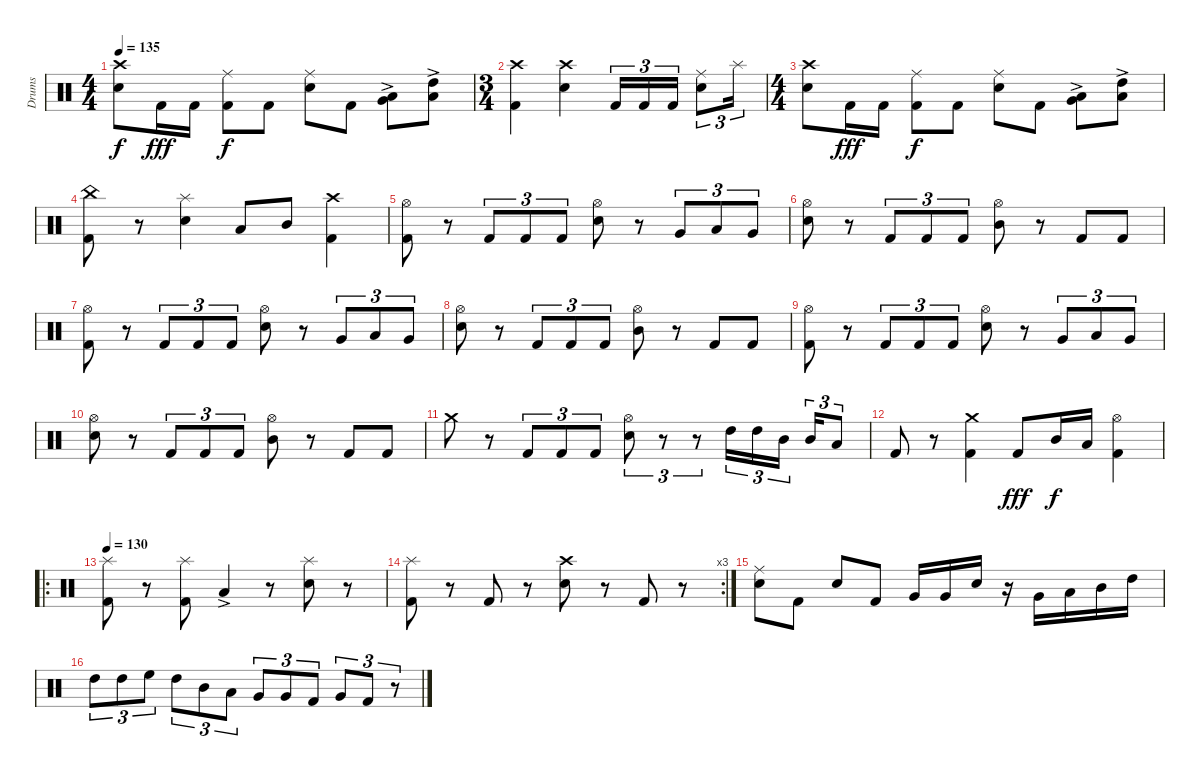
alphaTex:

\track ("Drums" "Drums") {instrument percussion}
\staff {score}
\articulation defaults
\ts (4 4)
\tempo 135
\clef neutral
\ks c
("Crash high (hit)" "Electric Snare (hit)").8{dy f} "Kick (hit) 2".16{dy fff} "Kick (hit) 2".16 ("Ride (middle)" "Kick (hit) 2").8{dy f} "Kick (hit) 2".8 ("Ride (middle)" "Electric Snare (hit)").8 "Kick (hit) 2".8 ("Low Tom (hit)"{ac} "Very Low Tom (hit)"{ac}).8 ("High Tom (hit)"{ac} "Low Floor Tom (hit)"{ac}).8 |
\ts (3 4)
("Crash high (hit)" "Kick (hit) 2").4 ("Crash high (hit)" "Electric Snare (hit)").4 "Kick (hit) 2".16{tu (3 2)} "Kick (hit) 2".16{tu (3 2)} "Kick (hit) 2".16{tu (3 2)} ("Ride (middle)" "Electric Snare (hit)").8{tu (3 2)} "Splash (hit)".16{tu (3 2)} |
\ts (4 4)
("Crash high (hit)" "Electric Snare (hit)").8 "Kick (hit) 2".16{dy fff} "Kick (hit) 2".16 ("Ride (middle)" "Kick (hit) 2").8{dy f} "Kick (hit) 2".8 ("Ride (middle)" "Electric Snare (hit)").8 "Kick (hit) 2".8 ("Low Tom (hit)"{ac} "Very Low Tom (hit)"{ac}).8 ("High Tom (hit)"{ac} "Low Floor Tom (hit)"{ac}).8 |
("China (hit)" "Kick (hit) 2").8 r.8 ("Splash (hit)" "Electric Snare (hit)").4 "Low Tom (hit)".8 "Mid Tom (hit)".8 ("Crash high (hit)" "Kick (hit) 2").4 |
("Hi-Hat (open)" "Kick (hit) 2").8 r.8 "Kick (hit) 2".8{tu (3 2)} "Kick (hit) 2".8{tu (3 2)} "Kick (hit) 2".8{tu (3 2)} ("Hi-Hat (open)" "Electric Snare (hit)").8 r.8 "Very Low Tom (hit)".8{tu (3 2)} "Low Tom (hit)".8{tu (3 2)} "Very Low Tom (hit)".8{tu (3 2)} |
("Hi-Hat (open)" "Electric Snare (hit)").8 r.8 "Kick (hit) 2".8{tu (3 2)} "Kick (hit) 2".8{tu (3 2)} "Kick (hit) 2".8{tu (3 2)} ("Hi-Hat (open)" "Mid Tom (hit)").8 r.8 "Kick (hit) 2".8 "Kick (hit) 2".8 |
("Hi-Hat (open)" "Kick (hit) 2").8 r.8 "Kick (hit) 2".8{tu (3 2)} "Kick (hit) 2".8{tu (3 2)} "Kick (hit) 2".8{tu (3 2)} ("Hi-Hat (open)" "Electric Snare (hit)").8 r.8 "Very Low Tom (hit)".8{tu (3 2)} "Low Tom (hit)".8{tu (3 2)} "Very Low Tom (hit)".8{tu (3 2)} |
("Hi-Hat (open)" "Electric Snare (hit)").8 r.8 "Kick (hit) 2".8{tu (3 2)} "Kick (hit) 2".8{tu (3 2)} "Kick (hit) 2".8{tu (3 2)} ("Hi-Hat (open)" "Mid Tom (hit)").8 r.8 "Kick (hit) 2".8 "Kick (hit) 2".8 |
("Hi-Hat (open)" "Kick (hit) 2").8 r.8 "Kick (hit) 2".8{tu (3 2)} "Kick (hit) 2".8{tu (3 2)} "Kick (hit) 2".8{tu (3 2)} ("Hi-Hat (open)" "Electric Snare (hit)").8 r.8 "Very Low Tom (hit)".8{tu (3 2)} "Low Tom (hit)".8{tu (3 2)} "Very Low Tom (hit)".8{tu (3 2)} |
("Hi-Hat (open)" "Electric Snare (hit)").8 r.8 "Kick (hit) 2".8{tu (3 2)} "Kick (hit) 2".8{tu (3 2)} "Kick (hit) 2".8{tu (3 2)} ("Hi-Hat (open)" "Mid Tom (hit)").8 r.8 "Kick (hit) 2".8 "Kick (hit) 2".8 |
"Crash medium (hit)".8 r.8 "Kick (hit) 2".8{tu (3 2)} "Kick (hit) 2".8{tu (3 2)} "Kick (hit) 2".8{tu (3 2)} ("Hi-Hat (open)" "Electric Snare (hit)").8{tu (3 2)} r.8{tu (3 2)} r.8{tu (3 2)} "High Tom (hit)".16{tu (3 2)} "High Tom (hit)".16{tu (3 2)} "Mid Tom (hit)".16{tu (3 2)} "Mid Tom (hit)".16{tu (3 2)} "Low Tom (hit)".8{tu (3 2)} |
"Kick (hit) 2".8 r.8 ("Crash medium (hit)" "Kick (hit) 2").4 "Kick (hit) 2".8{dy fff} "Mid Tom (hit)".16{dy f} "Low Tom (hit)".16 ("Hi-Hat (open)" "Kick (hit) 2").4 |
\ro
\tempo 130
("Splash (hit)" "Kick (hit) 2").8 r.8 ("Splash (hit)" "Kick (hit) 2").8 "Low Tom (hit)"{ac}.4 r.8 ("Splash (hit)" "Electric Snare (hit)").8 r.8 |
\rc 3
("Splash (hit)" "Kick (hit) 2").8 r.8 "Kick (hit) 2".8 r.8 ("Crash high (hit)" "Electric Snare (hit)").8 r.8 "Kick (hit) 2".8 r.8 |
("Ride (middle)" "Electric Snare (hit)").8 "Kick (hit) 2".8 "Electric Snare (hit)".8 "Kick (hit) 2".8 "Very Low Tom (hit)".16 "Very Low Tom (hit)".16 "Electric Snare (hit)".16 r.16 "Very Low Tom (hit)".16 "Low Tom (hit)".16 "Mid Tom (hit)".16 "High Tom (hit)".16 |
"High Tom (hit)".8{tu (3 2)} "High Tom (hit)".8{tu (3 2)} "High Floor Tom (hit)".8{tu (3 2)} "High Tom (hit)".8{tu (3 2)} "Mid Tom (hit)".8{tu (3 2)} "Low Tom (hit)".8{tu (3 2)} "Very Low Tom (hit)".8{tu (3 2)} "Very Low Tom (hit)".8{tu (3 2)} "Kick (hit) 2".8{tu (3 2)} "Very Low Tom (hit)".8{tu (3 2)} "Kick (hit) 2".8{tu (3 2)} r.8{tu (3 2)}
